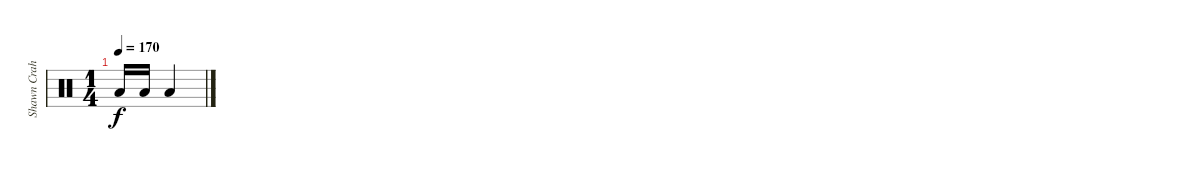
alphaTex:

\track ("Shawn Crahan" "Shawn Crah") {instrument percussion}
\staff {score}
\articulation defaults
\ts (1 4)
\tempo 170
\clef neutral
\ks c "Low Floor Tom (hit)".16{dy f} "Low Floor Tom (hit)".16 "Low Floor Tom (hit)".4
